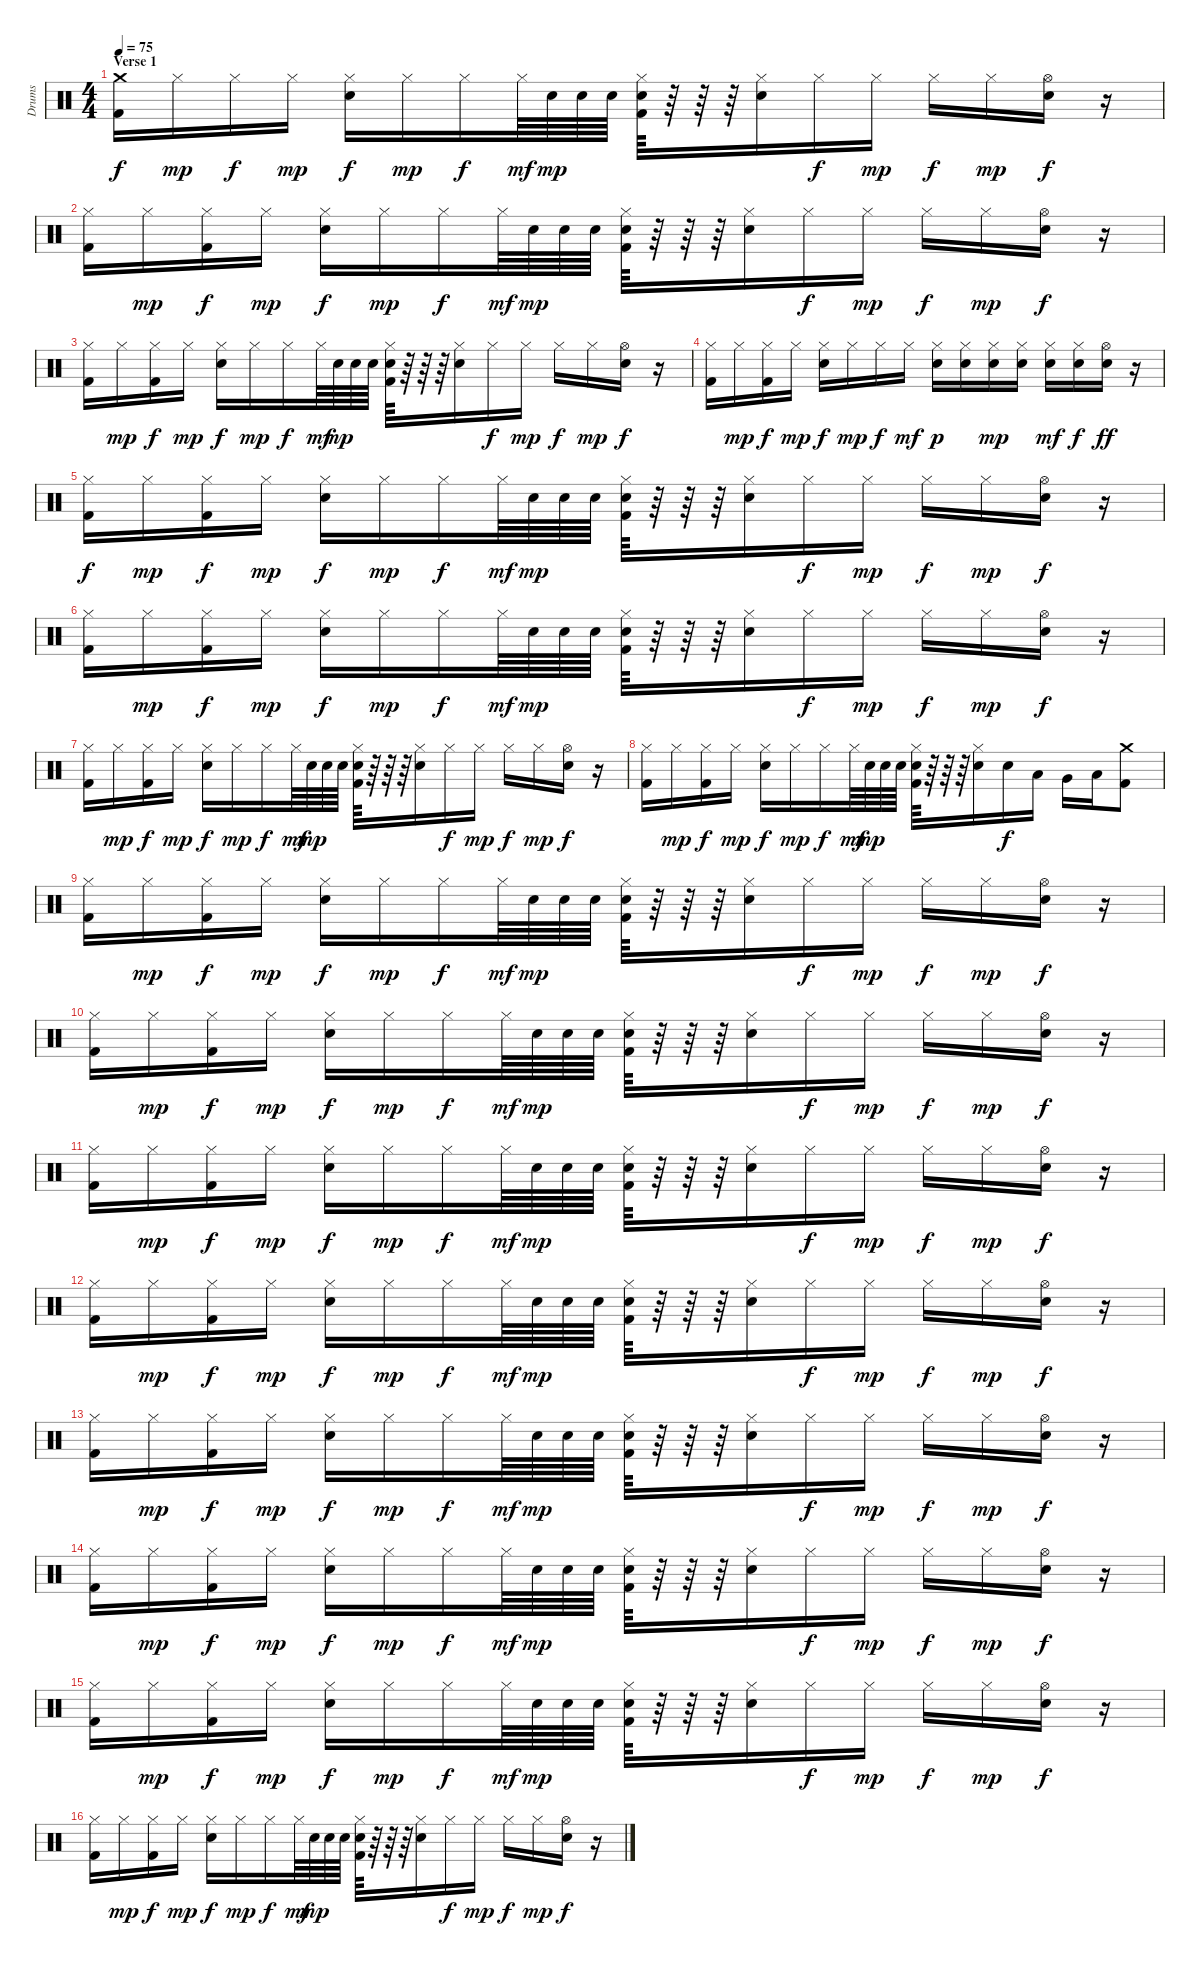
\track ("Drums" "Drums") {instrument percussion}
\staff {score}
\articulation defaults
\ts (4 4)
\section ("" "Verse 1")
\tempo 75
\clef neutral
\ks c
("Crash medium (hit)" "Kick (hit) 2").16{dy f} "Hi-Hat (closed)".16{dy mp} "Hi-Hat (closed)".16{dy f} "Hi-Hat (closed)".16{dy mp} ("Hi-Hat (closed)" "Snare (hit) 2").16{dy f} "Hi-Hat (closed)".16{dy mp} "Hi-Hat (closed)".16{dy f} "Hi-Hat (closed)".64{dy mf} "Snare (hit) 2".64{dy mp} "Snare (hit) 2".64 "Snare (hit) 2".64 ("Hi-Hat (closed)" "Snare (hit) 2" "Kick (hit) 2").64 r.64 r.64 r.64 ("Hi-Hat (closed)" "Snare (hit) 2").16 "Hi-Hat (closed)".16{dy f} "Hi-Hat (closed)".16{dy mp} "Hi-Hat (closed)".16{dy f} "Hi-Hat (closed)".16{dy mp} ("Hi-Hat (open)" "Snare (hit) 2").16{dy f} r.16 |
("Hi-Hat (closed)" "Kick (hit) 2").16 "Hi-Hat (closed)".16{dy mp} ("Hi-Hat (closed)" "Kick (hit) 2").16{dy f} "Hi-Hat (closed)".16{dy mp} ("Hi-Hat (closed)" "Snare (hit) 2").16{dy f} "Hi-Hat (closed)".16{dy mp} "Hi-Hat (closed)".16{dy f} "Hi-Hat (closed)".64{dy mf} "Snare (hit) 2".64{dy mp} "Snare (hit) 2".64 "Snare (hit) 2".64 ("Hi-Hat (closed)" "Snare (hit) 2" "Kick (hit) 2").64 r.64 r.64 r.64 ("Hi-Hat (closed)" "Snare (hit) 2").16 "Hi-Hat (closed)".16{dy f} "Hi-Hat (closed)".16{dy mp} "Hi-Hat (closed)".16{dy f} "Hi-Hat (closed)".16{dy mp} ("Hi-Hat (open)" "Snare (hit) 2").16{dy f} r.16 |
("Hi-Hat (closed)" "Kick (hit) 2").16 "Hi-Hat (closed)".16{dy mp} ("Hi-Hat (closed)" "Kick (hit) 2").16{dy f} "Hi-Hat (closed)".16{dy mp} ("Hi-Hat (closed)" "Snare (hit) 2").16{dy f} "Hi-Hat (closed)".16{dy mp} "Hi-Hat (closed)".16{dy f} "Hi-Hat (closed)".64{dy mf} "Snare (hit) 2".64{dy mp} "Snare (hit) 2".64 "Snare (hit) 2".64 ("Hi-Hat (closed)" "Snare (hit) 2" "Kick (hit) 2").64 r.64 r.64 r.64 ("Hi-Hat (closed)" "Snare (hit) 2").16 "Hi-Hat (closed)".16{dy f} "Hi-Hat (closed)".16{dy mp} "Hi-Hat (closed)".16{dy f} "Hi-Hat (closed)".16{dy mp} ("Hi-Hat (open)" "Snare (hit) 2").16{dy f} r.16 |
("Hi-Hat (closed)" "Kick (hit) 2").16 "Hi-Hat (closed)".16{dy mp} ("Hi-Hat (closed)" "Kick (hit) 2").16{dy f} "Hi-Hat (closed)".16{dy mp} ("Hi-Hat (closed)" "Snare (hit) 2").16{dy f} "Hi-Hat (closed)".16{dy mp} "Hi-Hat (closed)".16{dy f} "Hi-Hat (closed)".16{dy mf} ("Hi-Hat (closed)" "Snare (hit) 2").16{dy p} ("Hi-Hat (closed)" "Snare (hit) 2").16 ("Hi-Hat (closed)" "Snare (hit) 2").16{dy mp} ("Hi-Hat (closed)" "Snare (hit) 2").16 ("Hi-Hat (closed)" "Snare (hit) 2").16{dy mf} ("Hi-Hat (closed)" "Snare (hit) 2").16{dy f} ("Hi-Hat (open)" "Snare (hit) 2").16{dy ff} r.16 |
("Hi-Hat (closed)" "Kick (hit) 2").16{dy f} "Hi-Hat (closed)".16{dy mp} ("Hi-Hat (closed)" "Kick (hit) 2").16{dy f} "Hi-Hat (closed)".16{dy mp} ("Hi-Hat (closed)" "Snare (hit) 2").16{dy f} "Hi-Hat (closed)".16{dy mp} "Hi-Hat (closed)".16{dy f} "Hi-Hat (closed)".64{dy mf} "Snare (hit) 2".64{dy mp} "Snare (hit) 2".64 "Snare (hit) 2".64 ("Hi-Hat (closed)" "Snare (hit) 2" "Kick (hit) 2").64 r.64 r.64 r.64 ("Hi-Hat (closed)" "Snare (hit) 2").16 "Hi-Hat (closed)".16{dy f} "Hi-Hat (closed)".16{dy mp} "Hi-Hat (closed)".16{dy f} "Hi-Hat (closed)".16{dy mp} ("Hi-Hat (open)" "Snare (hit) 2").16{dy f} r.16 |
("Hi-Hat (closed)" "Kick (hit) 2").16 "Hi-Hat (closed)".16{dy mp} ("Hi-Hat (closed)" "Kick (hit) 2").16{dy f} "Hi-Hat (closed)".16{dy mp} ("Hi-Hat (closed)" "Snare (hit) 2").16{dy f} "Hi-Hat (closed)".16{dy mp} "Hi-Hat (closed)".16{dy f} "Hi-Hat (closed)".64{dy mf} "Snare (hit) 2".64{dy mp} "Snare (hit) 2".64 "Snare (hit) 2".64 ("Hi-Hat (closed)" "Snare (hit) 2" "Kick (hit) 2").64 r.64 r.64 r.64 ("Hi-Hat (closed)" "Snare (hit) 2").16 "Hi-Hat (closed)".16{dy f} "Hi-Hat (closed)".16{dy mp} "Hi-Hat (closed)".16{dy f} "Hi-Hat (closed)".16{dy mp} ("Hi-Hat (open)" "Snare (hit) 2").16{dy f} r.16 |
("Hi-Hat (closed)" "Kick (hit) 2").16 "Hi-Hat (closed)".16{dy mp} ("Hi-Hat (closed)" "Kick (hit) 2").16{dy f} "Hi-Hat (closed)".16{dy mp} ("Hi-Hat (closed)" "Snare (hit) 2").16{dy f} "Hi-Hat (closed)".16{dy mp} "Hi-Hat (closed)".16{dy f} "Hi-Hat (closed)".64{dy mf} "Snare (hit) 2".64{dy mp} "Snare (hit) 2".64 "Snare (hit) 2".64 ("Hi-Hat (closed)" "Snare (hit) 2" "Kick (hit) 2").64 r.64 r.64 r.64 ("Hi-Hat (closed)" "Snare (hit) 2").16 "Hi-Hat (closed)".16{dy f} "Hi-Hat (closed)".16{dy mp} "Hi-Hat (closed)".16{dy f} "Hi-Hat (closed)".16{dy mp} ("Hi-Hat (open)" "Snare (hit) 2").16{dy f} r.16 |
("Hi-Hat (closed)" "Kick (hit) 2").16 "Hi-Hat (closed)".16{dy mp} ("Hi-Hat (closed)" "Kick (hit) 2").16{dy f} "Hi-Hat (closed)".16{dy mp} ("Hi-Hat (closed)" "Snare (hit) 2").16{dy f} "Hi-Hat (closed)".16{dy mp} "Hi-Hat (closed)".16{dy f} "Hi-Hat (closed)".64{dy mf} "Snare (hit) 2".64{dy mp} "Snare (hit) 2".64 "Snare (hit) 2".64 ("Hi-Hat (closed)" "Snare (hit) 2" "Kick (hit) 2").64 r.64 r.64 r.64 ("Hi-Hat (closed)" "Snare (hit) 2").16 "Snare (hit) 2".16{dy f} "Low Tom (hit)".16 "Very Low Tom (hit)".16 "Low Floor Tom (hit)".16 ("Crash medium (hit)" "Kick (hit) 2").8 |
("Hi-Hat (closed)" "Kick (hit) 2").16 "Hi-Hat (closed)".16{dy mp} ("Hi-Hat (closed)" "Kick (hit) 2").16{dy f} "Hi-Hat (closed)".16{dy mp} ("Hi-Hat (closed)" "Snare (hit) 2").16{dy f} "Hi-Hat (closed)".16{dy mp} "Hi-Hat (closed)".16{dy f} "Hi-Hat (closed)".64{dy mf} "Snare (hit) 2".64{dy mp} "Snare (hit) 2".64 "Snare (hit) 2".64 ("Hi-Hat (closed)" "Snare (hit) 2" "Kick (hit) 2").64 r.64 r.64 r.64 ("Hi-Hat (closed)" "Snare (hit) 2").16 "Hi-Hat (closed)".16{dy f} "Hi-Hat (closed)".16{dy mp} "Hi-Hat (closed)".16{dy f} "Hi-Hat (closed)".16{dy mp} ("Hi-Hat (open)" "Snare (hit) 2").16{dy f} r.16 |
("Hi-Hat (closed)" "Kick (hit) 2").16 "Hi-Hat (closed)".16{dy mp} ("Hi-Hat (closed)" "Kick (hit) 2").16{dy f} "Hi-Hat (closed)".16{dy mp} ("Hi-Hat (closed)" "Snare (hit) 2").16{dy f} "Hi-Hat (closed)".16{dy mp} "Hi-Hat (closed)".16{dy f} "Hi-Hat (closed)".64{dy mf} "Snare (hit) 2".64{dy mp} "Snare (hit) 2".64 "Snare (hit) 2".64 ("Hi-Hat (closed)" "Snare (hit) 2" "Kick (hit) 2").64 r.64 r.64 r.64 ("Hi-Hat (closed)" "Snare (hit) 2").16 "Hi-Hat (closed)".16{dy f} "Hi-Hat (closed)".16{dy mp} "Hi-Hat (closed)".16{dy f} "Hi-Hat (closed)".16{dy mp} ("Hi-Hat (open)" "Snare (hit) 2").16{dy f} r.16 |
("Hi-Hat (closed)" "Kick (hit) 2").16 "Hi-Hat (closed)".16{dy mp} ("Hi-Hat (closed)" "Kick (hit) 2").16{dy f} "Hi-Hat (closed)".16{dy mp} ("Hi-Hat (closed)" "Snare (hit) 2").16{dy f} "Hi-Hat (closed)".16{dy mp} "Hi-Hat (closed)".16{dy f} "Hi-Hat (closed)".64{dy mf} "Snare (hit) 2".64{dy mp} "Snare (hit) 2".64 "Snare (hit) 2".64 ("Hi-Hat (closed)" "Snare (hit) 2" "Kick (hit) 2").64 r.64 r.64 r.64 ("Hi-Hat (closed)" "Snare (hit) 2").16 "Hi-Hat (closed)".16{dy f} "Hi-Hat (closed)".16{dy mp} "Hi-Hat (closed)".16{dy f} "Hi-Hat (closed)".16{dy mp} ("Hi-Hat (open)" "Snare (hit) 2").16{dy f} r.16 |
("Hi-Hat (closed)" "Kick (hit) 2").16 "Hi-Hat (closed)".16{dy mp} ("Hi-Hat (closed)" "Kick (hit) 2").16{dy f} "Hi-Hat (closed)".16{dy mp} ("Hi-Hat (closed)" "Snare (hit) 2").16{dy f} "Hi-Hat (closed)".16{dy mp} "Hi-Hat (closed)".16{dy f} "Hi-Hat (closed)".64{dy mf} "Snare (hit) 2".64{dy mp} "Snare (hit) 2".64 "Snare (hit) 2".64 ("Hi-Hat (closed)" "Snare (hit) 2" "Kick (hit) 2").64 r.64 r.64 r.64 ("Hi-Hat (closed)" "Snare (hit) 2").16 "Hi-Hat (closed)".16{dy f} "Hi-Hat (closed)".16{dy mp} "Hi-Hat (closed)".16{dy f} "Hi-Hat (closed)".16{dy mp} ("Hi-Hat (open)" "Snare (hit) 2").16{dy f} r.16 |
("Hi-Hat (closed)" "Kick (hit) 2").16 "Hi-Hat (closed)".16{dy mp} ("Hi-Hat (closed)" "Kick (hit) 2").16{dy f} "Hi-Hat (closed)".16{dy mp} ("Hi-Hat (closed)" "Snare (hit) 2").16{dy f} "Hi-Hat (closed)".16{dy mp} "Hi-Hat (closed)".16{dy f} "Hi-Hat (closed)".64{dy mf} "Snare (hit) 2".64{dy mp} "Snare (hit) 2".64 "Snare (hit) 2".64 ("Hi-Hat (closed)" "Snare (hit) 2" "Kick (hit) 2").64 r.64 r.64 r.64 ("Hi-Hat (closed)" "Snare (hit) 2").16 "Hi-Hat (closed)".16{dy f} "Hi-Hat (closed)".16{dy mp} "Hi-Hat (closed)".16{dy f} "Hi-Hat (closed)".16{dy mp} ("Hi-Hat (open)" "Snare (hit) 2").16{dy f} r.16 |
("Hi-Hat (closed)" "Kick (hit) 2").16 "Hi-Hat (closed)".16{dy mp} ("Hi-Hat (closed)" "Kick (hit) 2").16{dy f} "Hi-Hat (closed)".16{dy mp} ("Hi-Hat (closed)" "Snare (hit) 2").16{dy f} "Hi-Hat (closed)".16{dy mp} "Hi-Hat (closed)".16{dy f} "Hi-Hat (closed)".64{dy mf} "Snare (hit) 2".64{dy mp} "Snare (hit) 2".64 "Snare (hit) 2".64 ("Hi-Hat (closed)" "Snare (hit) 2" "Kick (hit) 2").64 r.64 r.64 r.64 ("Hi-Hat (closed)" "Snare (hit) 2").16 "Hi-Hat (closed)".16{dy f} "Hi-Hat (closed)".16{dy mp} "Hi-Hat (closed)".16{dy f} "Hi-Hat (closed)".16{dy mp} ("Hi-Hat (open)" "Snare (hit) 2").16{dy f} r.16 |
("Hi-Hat (closed)" "Kick (hit) 2").16 "Hi-Hat (closed)".16{dy mp} ("Hi-Hat (closed)" "Kick (hit) 2").16{dy f} "Hi-Hat (closed)".16{dy mp} ("Hi-Hat (closed)" "Snare (hit) 2").16{dy f} "Hi-Hat (closed)".16{dy mp} "Hi-Hat (closed)".16{dy f} "Hi-Hat (closed)".64{dy mf} "Snare (hit) 2".64{dy mp} "Snare (hit) 2".64 "Snare (hit) 2".64 ("Hi-Hat (closed)" "Snare (hit) 2" "Kick (hit) 2").64 r.64 r.64 r.64 ("Hi-Hat (closed)" "Snare (hit) 2").16 "Hi-Hat (closed)".16{dy f} "Hi-Hat (closed)".16{dy mp} "Hi-Hat (closed)".16{dy f} "Hi-Hat (closed)".16{dy mp} ("Hi-Hat (open)" "Snare (hit) 2").16{dy f} r.16 |
("Hi-Hat (closed)" "Kick (hit) 2").16 "Hi-Hat (closed)".16{dy mp} ("Hi-Hat (closed)" "Kick (hit) 2").16{dy f} "Hi-Hat (closed)".16{dy mp} ("Hi-Hat (closed)" "Snare (hit) 2").16{dy f} "Hi-Hat (closed)".16{dy mp} "Hi-Hat (closed)".16{dy f} "Hi-Hat (closed)".64{dy mf} "Snare (hit) 2".64{dy mp} "Snare (hit) 2".64 "Snare (hit) 2".64 ("Hi-Hat (closed)" "Snare (hit) 2" "Kick (hit) 2").64 r.64 r.64 r.64 ("Hi-Hat (closed)" "Snare (hit) 2").16 "Hi-Hat (closed)".16{dy f} "Hi-Hat (closed)".16{dy mp} "Hi-Hat (closed)".16{dy f} "Hi-Hat (closed)".16{dy mp} ("Hi-Hat (open)" "Snare (hit) 2").16{dy f} r.16
